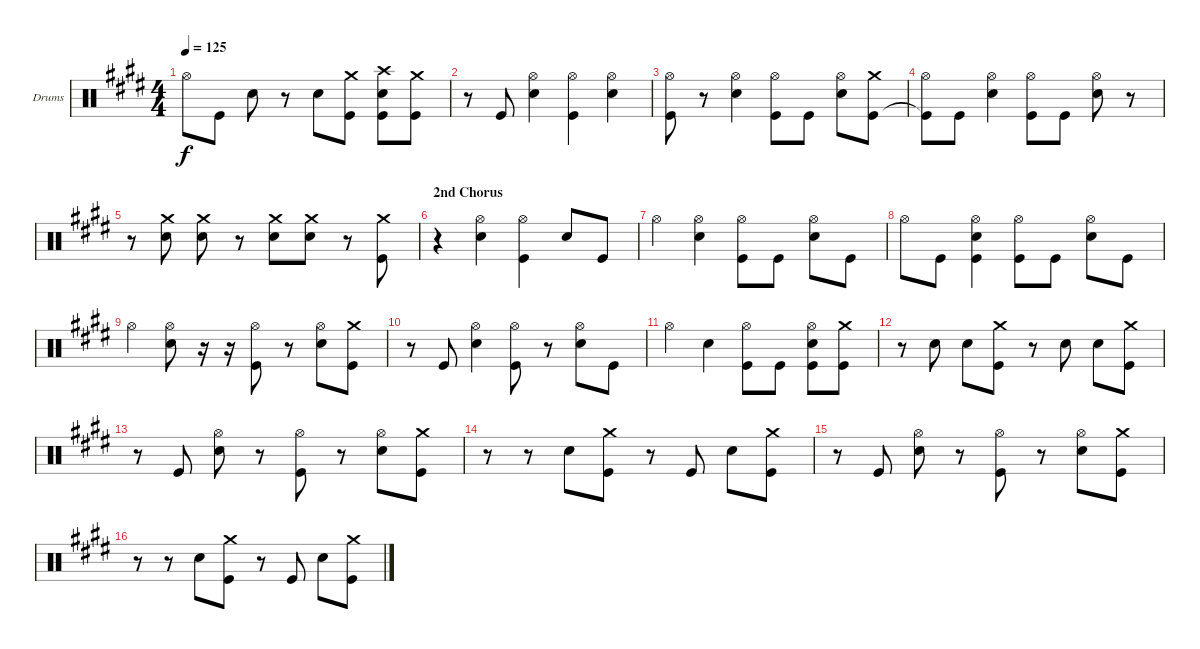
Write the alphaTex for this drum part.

\bracketExtendMode groupsimilarinstruments
\firstSystemTrackNameOrientation horizontal
\otherSystemsTrackNameOrientation horizontal
\track ("Drumkit" "Drums") {instrument percussion}
\staff {score}
\articulation defaults
\ts (4 4)
\tempo 125
\clef neutral
\ks e "Hi-Hat (open)".8{dy f} "Kick (hit)".8 "Snare (hit) 2".8
r.8 "Snare (hit) 2".8 ("Crash medium (hit)" "Kick (hit)").8 ("Crash high (hit)" "Snare (hit) 2" "Kick (hit)").8 ("Crash medium (hit)" "Kick (hit)").8 |
r.8 "Kick (hit)".8 ("Hi-Hat (open)" "Snare (hit) 2").4 ("Hi-Hat (open)" "Kick (hit)").4 ("Hi-Hat (open)" "Snare (hit) 2").4 |
("Hi-Hat (open)" "Kick (hit)").8 r.8 ("Hi-Hat (open)" "Snare (hit) 2").4 ("Hi-Hat (open)" "Kick (hit)").8 "Kick (hit)".8 ("Hi-Hat (open)" "Snare (hit) 2").8 ("Crash medium (hit)" "Kick (hit)").8 |
("Hi-Hat (open)" "Kick (hit)"{t}).8 "Kick (hit)".8 ("Hi-Hat (open)" "Snare (hit) 2").4 ("Hi-Hat (open)" "Kick (hit)").8 "Kick (hit)".8 ("Hi-Hat (open)" "Snare (hit) 2").8 r.8 |
r.8 ("Crash medium (hit)" "Snare (hit) 2").8 ("Crash medium (hit)" "Snare (hit) 2").8 r.8 ("Crash medium (hit)" "Snare (hit) 2").8 ("Crash medium (hit)" "Snare (hit) 2").8 r.8 ("Crash medium (hit)" "Kick (hit)").8 |
\section ("" "2nd Chorus")
r.4 ("Hi-Hat (open)" "Snare (hit) 2").4 ("Hi-Hat (open)" "Kick (hit)").4 "Snare (hit) 2".8 "Kick (hit)".8 |
"Hi-Hat (open)".4 ("Hi-Hat (open)" "Snare (hit) 2").4 ("Hi-Hat (open)" "Kick (hit)").8 "Kick (hit)".8 ("Hi-Hat (open)" "Snare (hit) 2").8 "Kick (hit)".8 |
"Hi-Hat (open)".8 "Kick (hit)".8 ("Hi-Hat (open)" "Snare (hit) 2" "Kick (hit)").4 ("Hi-Hat (open)" "Kick (hit)").8 "Kick (hit)".8 ("Hi-Hat (open)" "Snare (hit) 2").8 "Kick (hit)".8 |
"Hi-Hat (open)".4 ("Hi-Hat (open)" "Snare (hit) 2").8 r.16 r.16 ("Hi-Hat (open)" "Kick (hit)").8 r.8 ("Hi-Hat (open)" "Snare (hit) 2").8 ("Crash medium (hit)" "Kick (hit)").8 |
r.8 "Kick (hit)".8 ("Hi-Hat (open)" "Snare (hit) 2").4 ("Hi-Hat (open)" "Kick (hit)").8 r.8 ("Hi-Hat (open)" "Snare (hit) 2").8 "Kick (hit)".8 |
"Hi-Hat (open)".4 "Snare (hit) 2".4 ("Hi-Hat (open)" "Kick (hit)").8 "Kick (hit)".8 ("Hi-Hat (open)" "Snare (hit) 2" "Kick (hit)").8 ("Crash medium (hit)" "Kick (hit)").8 |
r.8 "Snare (hit) 2".8 "Snare (hit) 2".8 ("Crash medium (hit)" "Kick (hit)").8 r.8 "Snare (hit) 2".8 "Snare (hit) 2".8 ("Crash medium (hit)" "Kick (hit)").8 |
r.8 "Kick (hit)".8 ("Hi-Hat (open)" "Snare (hit) 2").8 r.8 ("Hi-Hat (open)" "Kick (hit)").8 r.8 ("Hi-Hat (open)" "Snare (hit) 2").8 ("Crash medium (hit)" "Kick (hit)").8 |
r.8 r.8 "Snare (hit) 2".8 ("Crash medium (hit)" "Kick (hit)").8 r.8 "Kick (hit)".8 "Snare (hit) 2".8 ("Crash medium (hit)" "Kick (hit)").8 |
r.8 "Kick (hit)".8 ("Hi-Hat (open)" "Snare (hit) 2").8 r.8 ("Hi-Hat (open)" "Kick (hit)").8 r.8 ("Hi-Hat (open)" "Snare (hit) 2").8 ("Crash medium (hit)" "Kick (hit)").8 |
r.8 r.8 "Snare (hit) 2".8 ("Crash medium (hit)" "Kick (hit)").8 r.8 "Kick (hit)".8 "Snare (hit) 2".8 ("Crash medium (hit)" "Kick (hit)").8
